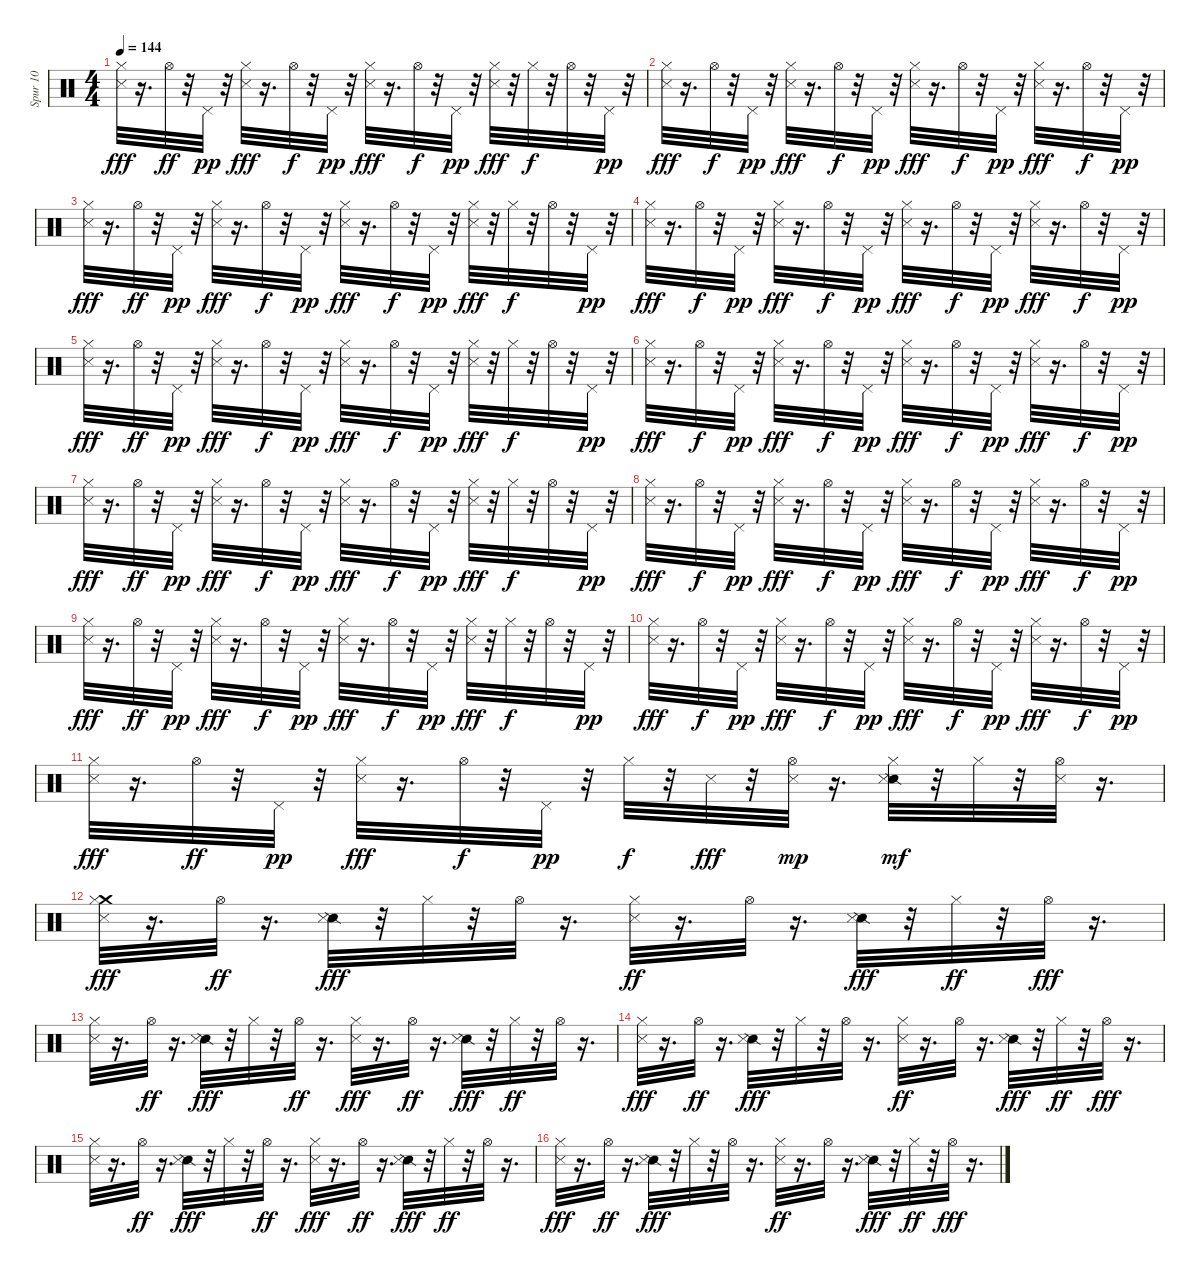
\track ("Spur 10" "Spur 10") {instrument percussion}
\staff {score}
\articulation defaults
\ts (4 4)
\tempo 144
\clef neutral
\ks c
("Metronome (hit)" "Hi-Hat (closed)").32{dy fff} r.16{d} "Hi-Hat (open)".32{dy ff} r.32 "Pedal Hi-Hat (hit)".32{dy pp} r.32 ("Metronome (hit)" "Hi-Hat (closed)").32{dy fff} r.16{d} "Hi-Hat (open)".32{dy f} r.32 "Pedal Hi-Hat (hit)".32{dy pp} r.32 ("Metronome (hit)" "Hi-Hat (closed)").32{dy fff} r.16{d} "Hi-Hat (open)".32{dy f} r.32 "Pedal Hi-Hat (hit)".32{dy pp} r.32 ("Metronome (hit)" "Hi-Hat (closed)").32{dy fff} r.32 "Hi-Hat (closed)".32{dy f} r.32 "Hi-Hat (open)".32 r.32 "Pedal Hi-Hat (hit)".32{dy pp} r.32 |
("Metronome (hit)" "Hi-Hat (closed)").32{dy fff} r.16{d} "Hi-Hat (open)".32{dy f} r.32 "Pedal Hi-Hat (hit)".32{dy pp} r.32 ("Metronome (hit)" "Hi-Hat (closed)").32{dy fff} r.16{d} "Hi-Hat (open)".32{dy f} r.32 "Pedal Hi-Hat (hit)".32{dy pp} r.32 ("Metronome (hit)" "Hi-Hat (closed)").32{dy fff} r.16{d} "Hi-Hat (open)".32{dy f} r.32 "Pedal Hi-Hat (hit)".32{dy pp} r.32 ("Metronome (hit)" "Hi-Hat (closed)").32{dy fff} r.16{d} "Hi-Hat (open)".32{dy f} r.32 "Pedal Hi-Hat (hit)".32{dy pp} r.32 |
("Metronome (hit)" "Hi-Hat (closed)").32{dy fff} r.16{d} "Hi-Hat (open)".32{dy ff} r.32 "Pedal Hi-Hat (hit)".32{dy pp} r.32 ("Metronome (hit)" "Hi-Hat (closed)").32{dy fff} r.16{d} "Hi-Hat (open)".32{dy f} r.32 "Pedal Hi-Hat (hit)".32{dy pp} r.32 ("Metronome (hit)" "Hi-Hat (closed)").32{dy fff} r.16{d} "Hi-Hat (open)".32{dy f} r.32 "Pedal Hi-Hat (hit)".32{dy pp} r.32 ("Metronome (hit)" "Hi-Hat (closed)").32{dy fff} r.32 "Hi-Hat (closed)".32{dy f} r.32 "Hi-Hat (open)".32 r.32 "Pedal Hi-Hat (hit)".32{dy pp} r.32 |
("Metronome (hit)" "Hi-Hat (closed)").32{dy fff} r.16{d} "Hi-Hat (open)".32{dy f} r.32 "Pedal Hi-Hat (hit)".32{dy pp} r.32 ("Metronome (hit)" "Hi-Hat (closed)").32{dy fff} r.16{d} "Hi-Hat (open)".32{dy f} r.32 "Pedal Hi-Hat (hit)".32{dy pp} r.32 ("Metronome (hit)" "Hi-Hat (closed)").32{dy fff} r.16{d} "Hi-Hat (open)".32{dy f} r.32 "Pedal Hi-Hat (hit)".32{dy pp} r.32 ("Metronome (hit)" "Hi-Hat (closed)").32{dy fff} r.16{d} "Hi-Hat (open)".32{dy f} r.32 "Pedal Hi-Hat (hit)".32{dy pp} r.32 |
("Metronome (hit)" "Hi-Hat (closed)").32{dy fff} r.16{d} "Hi-Hat (open)".32{dy ff} r.32 "Pedal Hi-Hat (hit)".32{dy pp} r.32 ("Metronome (hit)" "Hi-Hat (closed)").32{dy fff} r.16{d} "Hi-Hat (open)".32{dy f} r.32 "Pedal Hi-Hat (hit)".32{dy pp} r.32 ("Metronome (hit)" "Hi-Hat (closed)").32{dy fff} r.16{d} "Hi-Hat (open)".32{dy f} r.32 "Pedal Hi-Hat (hit)".32{dy pp} r.32 ("Metronome (hit)" "Hi-Hat (closed)").32{dy fff} r.32 "Hi-Hat (closed)".32{dy f} r.32 "Hi-Hat (open)".32 r.32 "Pedal Hi-Hat (hit)".32{dy pp} r.32 |
("Metronome (hit)" "Hi-Hat (closed)").32{dy fff} r.16{d} "Hi-Hat (open)".32{dy f} r.32 "Pedal Hi-Hat (hit)".32{dy pp} r.32 ("Metronome (hit)" "Hi-Hat (closed)").32{dy fff} r.16{d} "Hi-Hat (open)".32{dy f} r.32 "Pedal Hi-Hat (hit)".32{dy pp} r.32 ("Metronome (hit)" "Hi-Hat (closed)").32{dy fff} r.16{d} "Hi-Hat (open)".32{dy f} r.32 "Pedal Hi-Hat (hit)".32{dy pp} r.32 ("Metronome (hit)" "Hi-Hat (closed)").32{dy fff} r.16{d} "Hi-Hat (open)".32{dy f} r.32 "Pedal Hi-Hat (hit)".32{dy pp} r.32 |
("Metronome (hit)" "Hi-Hat (closed)").32{dy fff} r.16{d} "Hi-Hat (open)".32{dy ff} r.32 "Pedal Hi-Hat (hit)".32{dy pp} r.32 ("Metronome (hit)" "Hi-Hat (closed)").32{dy fff} r.16{d} "Hi-Hat (open)".32{dy f} r.32 "Pedal Hi-Hat (hit)".32{dy pp} r.32 ("Metronome (hit)" "Hi-Hat (closed)").32{dy fff} r.16{d} "Hi-Hat (open)".32{dy f} r.32 "Pedal Hi-Hat (hit)".32{dy pp} r.32 ("Metronome (hit)" "Hi-Hat (closed)").32{dy fff} r.32 "Hi-Hat (closed)".32{dy f} r.32 "Hi-Hat (open)".32 r.32 "Pedal Hi-Hat (hit)".32{dy pp} r.32 |
("Metronome (hit)" "Hi-Hat (closed)").32{dy fff} r.16{d} "Hi-Hat (open)".32{dy f} r.32 "Pedal Hi-Hat (hit)".32{dy pp} r.32 ("Metronome (hit)" "Hi-Hat (closed)").32{dy fff} r.16{d} "Hi-Hat (open)".32{dy f} r.32 "Pedal Hi-Hat (hit)".32{dy pp} r.32 ("Metronome (hit)" "Hi-Hat (closed)").32{dy fff} r.16{d} "Hi-Hat (open)".32{dy f} r.32 "Pedal Hi-Hat (hit)".32{dy pp} r.32 ("Metronome (hit)" "Hi-Hat (closed)").32{dy fff} r.16{d} "Hi-Hat (open)".32{dy f} r.32 "Pedal Hi-Hat (hit)".32{dy pp} r.32 |
("Metronome (hit)" "Hi-Hat (closed)").32{dy fff} r.16{d} "Hi-Hat (open)".32{dy ff} r.32 "Pedal Hi-Hat (hit)".32{dy pp} r.32 ("Metronome (hit)" "Hi-Hat (closed)").32{dy fff} r.16{d} "Hi-Hat (open)".32{dy f} r.32 "Pedal Hi-Hat (hit)".32{dy pp} r.32 ("Metronome (hit)" "Hi-Hat (closed)").32{dy fff} r.16{d} "Hi-Hat (open)".32{dy f} r.32 "Pedal Hi-Hat (hit)".32{dy pp} r.32 ("Metronome (hit)" "Hi-Hat (closed)").32{dy fff} r.32 "Hi-Hat (closed)".32{dy f} r.32 "Hi-Hat (open)".32 r.32 "Pedal Hi-Hat (hit)".32{dy pp} r.32 |
("Metronome (hit)" "Hi-Hat (closed)").32{dy fff} r.16{d} "Hi-Hat (open)".32{dy f} r.32 "Pedal Hi-Hat (hit)".32{dy pp} r.32 ("Metronome (hit)" "Hi-Hat (closed)").32{dy fff} r.16{d} "Hi-Hat (open)".32{dy f} r.32 "Pedal Hi-Hat (hit)".32{dy pp} r.32 ("Metronome (hit)" "Hi-Hat (closed)").32{dy fff} r.16{d} "Hi-Hat (open)".32{dy f} r.32 "Pedal Hi-Hat (hit)".32{dy pp} r.32 ("Metronome (hit)" "Hi-Hat (closed)").32{dy fff} r.16{d} "Hi-Hat (open)".32{dy f} r.32 "Pedal Hi-Hat (hit)".32{dy pp} r.32 |
("Metronome (hit)" "Hi-Hat (closed)").32{dy fff} r.16{d} "Hi-Hat (open)".32{dy ff} r.32 "Pedal Hi-Hat (hit)".32{dy pp} r.32 ("Metronome (hit)" "Hi-Hat (closed)").32{dy fff} r.16{d} "Hi-Hat (open)".32{dy f} r.32 "Pedal Hi-Hat (hit)".32{dy pp} r.32 "Hi-Hat (closed)".32{dy f} r.32 "Metronome (hit)".32{dy fff} r.32 ("Metronome (hit)" "Hi-Hat (open)").32{dy mp} r.16{d} ("Snare (side stick) 2" "Metronome (hit)" "Hi-Hat (closed)").32{dy mf} r.32 "Hi-Hat (closed)".32 r.32 ("Metronome (hit)" "Hi-Hat (open)").32 r.16{d} |
("Crash medium (hit)" "Metronome (hit)" "Hi-Hat (closed)").32{dy fff} r.16{d} "Hi-Hat (open)".32{dy ff} r.16{d} ("Snare (side stick) 2" "Metronome (hit)").32{dy fff} r.32 "Hi-Hat (closed)".32 r.32 "Hi-Hat (open)".32 r.16{d} ("Metronome (hit)" "Hi-Hat (closed)").32{dy ff} r.16{d} "Hi-Hat (open)".32 r.16{d} ("Snare (side stick) 2" "Metronome (hit)").32{dy fff} r.32 "Hi-Hat (closed)".32{dy ff} r.32 "Hi-Hat (open)".32{dy fff} r.16{d} |
("Metronome (hit)" "Hi-Hat (closed)").32 r.16{d} "Hi-Hat (open)".32{dy ff} r.16{d} ("Snare (side stick) 2" "Metronome (hit)").32{dy fff} r.32 "Hi-Hat (closed)".32 r.32 "Hi-Hat (open)".32{dy ff} r.16{d} ("Metronome (hit)" "Hi-Hat (closed)").32{dy fff} r.16{d} "Hi-Hat (open)".32{dy ff} r.16{d} ("Snare (side stick) 2" "Metronome (hit)").32{dy fff} r.32 "Hi-Hat (closed)".32{dy ff} r.32 "Hi-Hat (open)".32 r.16{d} |
("Metronome (hit)" "Hi-Hat (closed)").32{dy fff} r.16{d} "Hi-Hat (open)".32{dy ff} r.16{d} ("Snare (side stick) 2" "Metronome (hit)").32{dy fff} r.32 "Hi-Hat (closed)".32 r.32 "Hi-Hat (open)".32 r.16{d} ("Metronome (hit)" "Hi-Hat (closed)").32{dy ff} r.16{d} "Hi-Hat (open)".32 r.16{d} ("Snare (side stick) 2" "Metronome (hit)").32{dy fff} r.32 "Hi-Hat (closed)".32{dy ff} r.32 "Hi-Hat (open)".32{dy fff} r.16{d} |
("Metronome (hit)" "Hi-Hat (closed)").32 r.16{d} "Hi-Hat (open)".32{dy ff} r.16{d} ("Snare (side stick) 2" "Metronome (hit)").32{dy fff} r.32 "Hi-Hat (closed)".32 r.32 "Hi-Hat (open)".32{dy ff} r.16{d} ("Metronome (hit)" "Hi-Hat (closed)").32{dy fff} r.16{d} "Hi-Hat (open)".32{dy ff} r.16{d} ("Snare (side stick) 2" "Metronome (hit)").32{dy fff} r.32 "Hi-Hat (closed)".32{dy ff} r.32 "Hi-Hat (open)".32 r.16{d} |
("Metronome (hit)" "Hi-Hat (closed)").32{dy fff} r.16{d} "Hi-Hat (open)".32{dy ff} r.16{d} ("Snare (side stick) 2" "Metronome (hit)").32{dy fff} r.32 "Hi-Hat (closed)".32 r.32 "Hi-Hat (open)".32 r.16{d} ("Metronome (hit)" "Hi-Hat (closed)").32{dy ff} r.16{d} "Hi-Hat (open)".32 r.16{d} ("Snare (side stick) 2" "Metronome (hit)").32{dy fff} r.32 "Hi-Hat (closed)".32{dy ff} r.32 "Hi-Hat (open)".32{dy fff} r.16{d}
